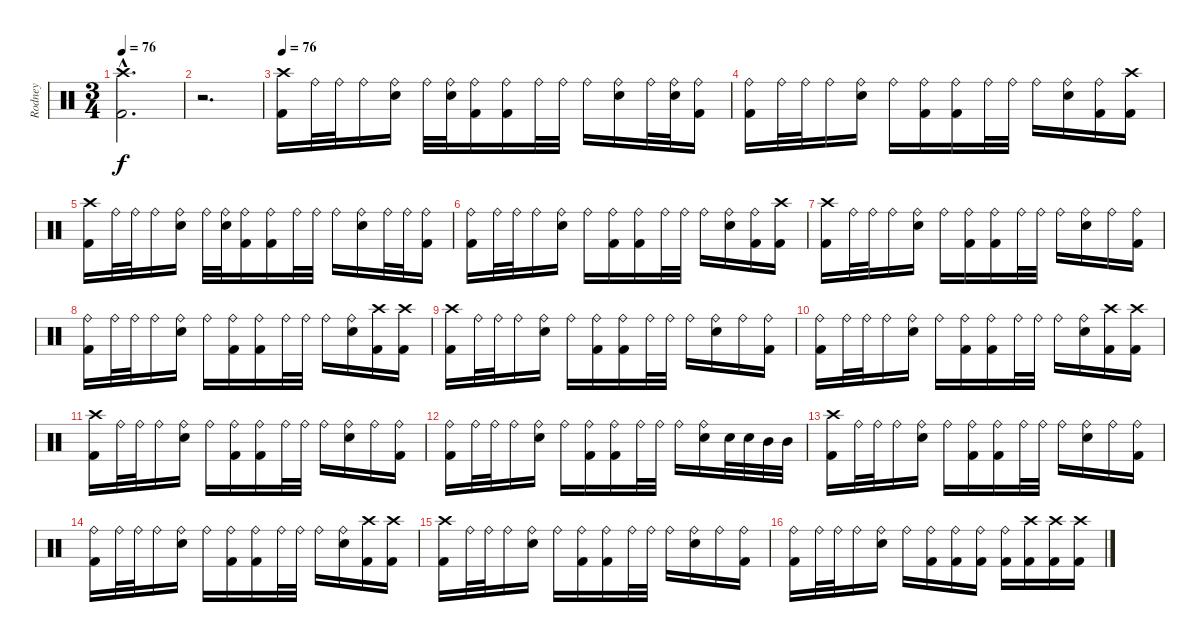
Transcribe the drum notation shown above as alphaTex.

\track ("Rodney" "Rodney") {instrument percussion}
\staff {score}
\articulation defaults
\ts (3 4)
\tempo 76
\clef neutral
\ks c
("Crash high (hit)"{hac} "Kick (hit) 2"{hac}).2{d dy f} |
r.2{d} |
\tempo 76
("Crash high (hit)" "Kick (hit) 2").16 "Ride (bell)".32 "Ride (bell)".32 "Ride (bell)".16 ("Ride (bell)" "Snare (hit) 2").16 "Ride (bell)".32 ("Ride (bell)" "Snare (hit) 2").32 ("Ride (bell)" "Kick (hit) 2").16 ("Ride (bell)" "Kick (hit) 2").16 "Ride (bell)".32 "Ride (bell)".32 "Ride (bell)".16 ("Ride (bell)" "Snare (hit) 2").16 "Ride (bell)".32 ("Ride (bell)" "Snare (hit) 2").32 ("Ride (bell)" "Kick (hit) 2").16 |
("Ride (bell)" "Kick (hit) 2").16 "Ride (bell)".32 "Ride (bell)".32 "Ride (bell)".16 ("Ride (bell)" "Snare (hit) 2").16 "Ride (bell)".16 ("Ride (bell)" "Kick (hit) 2").16 ("Ride (bell)" "Kick (hit) 2").16 "Ride (bell)".32 "Ride (bell)".32 "Ride (bell)".16 ("Ride (bell)" "Snare (hit) 2").16 ("Ride (bell)" "Kick (hit) 2").16 ("Crash high (hit)" "Kick (hit) 2").16 |
("Crash high (hit)" "Kick (hit) 2").16 "Ride (bell)".32 "Ride (bell)".32 "Ride (bell)".16 ("Ride (bell)" "Snare (hit) 2").16 "Ride (bell)".32 ("Ride (bell)" "Snare (hit) 2").32 ("Ride (bell)" "Kick (hit) 2").16 ("Ride (bell)" "Kick (hit) 2").16 "Ride (bell)".32 "Ride (bell)".32 "Ride (bell)".16 ("Ride (bell)" "Snare (hit) 2").16 "Ride (bell)".32 "Ride (bell)".32 ("Ride (bell)" "Kick (hit) 2").16 |
("Ride (bell)" "Kick (hit) 2").16 "Ride (bell)".32 "Ride (bell)".32 "Ride (bell)".16 ("Ride (bell)" "Snare (hit) 2").16 "Ride (bell)".16 ("Ride (bell)" "Kick (hit) 2").16 ("Ride (bell)" "Kick (hit) 2").16 "Ride (bell)".32 "Ride (bell)".32 "Ride (bell)".16 ("Ride (bell)" "Snare (hit) 2").16 ("Ride (bell)" "Kick (hit) 2").16 ("Crash high (hit)" "Kick (hit) 2").16 |
("Crash high (hit)" "Kick (hit) 2").16 "Ride (bell)".32 "Ride (bell)".32 "Ride (bell)".16 ("Ride (bell)" "Snare (hit) 2").16 "Ride (bell)".16 ("Ride (bell)" "Kick (hit) 2").16 ("Ride (bell)" "Kick (hit) 2").16 "Ride (bell)".32 "Ride (bell)".32 "Ride (bell)".16 ("Ride (bell)" "Snare (hit) 2").16 "Ride (bell)".16 ("Ride (bell)" "Kick (hit) 2").16 |
("Ride (bell)" "Kick (hit) 2").16 "Ride (bell)".32 "Ride (bell)".32 "Ride (bell)".16 ("Ride (bell)" "Snare (hit) 2").16 "Ride (bell)".16 ("Ride (bell)" "Kick (hit) 2").16 ("Ride (bell)" "Kick (hit) 2").16 "Ride (bell)".32 "Ride (bell)".32 "Ride (bell)".16 ("Ride (bell)" "Snare (hit) 2").16 ("Crash high (hit)" "Kick (hit) 2").16 ("Crash high (hit)" "Kick (hit) 2").16 |
("Crash high (hit)" "Kick (hit) 2").16 "Ride (bell)".32 "Ride (bell)".32 "Ride (bell)".16 ("Ride (bell)" "Snare (hit) 2").16 "Ride (bell)".16 ("Ride (bell)" "Kick (hit) 2").16 ("Ride (bell)" "Kick (hit) 2").16 "Ride (bell)".32 "Ride (bell)".32 "Ride (bell)".16 ("Ride (bell)" "Snare (hit) 2").16 "Ride (bell)".16 ("Ride (bell)" "Kick (hit) 2").16 |
("Ride (bell)" "Kick (hit) 2").16 "Ride (bell)".32 "Ride (bell)".32 "Ride (bell)".16 ("Ride (bell)" "Snare (hit) 2").16 "Ride (bell)".16 ("Ride (bell)" "Kick (hit) 2").16 ("Ride (bell)" "Kick (hit) 2").16 "Ride (bell)".32 "Ride (bell)".32 "Ride (bell)".16 ("Ride (bell)" "Snare (hit) 2").16 ("Crash high (hit)" "Kick (hit) 2").16 ("Crash high (hit)" "Kick (hit) 2").16 |
("Crash high (hit)" "Kick (hit) 2").16 "Ride (bell)".32 "Ride (bell)".32 "Ride (bell)".16 ("Ride (bell)" "Snare (hit) 2").16 "Ride (bell)".16 ("Ride (bell)" "Kick (hit) 2").16 ("Ride (bell)" "Kick (hit) 2").16 "Ride (bell)".32 "Ride (bell)".32 "Ride (bell)".16 ("Ride (bell)" "Snare (hit) 2").16 "Ride (bell)".16 ("Ride (bell)" "Kick (hit) 2").16 |
("Ride (bell)" "Kick (hit) 2").16 "Ride (bell)".32 "Ride (bell)".32 "Ride (bell)".16 ("Ride (bell)" "Snare (hit) 2").16 "Ride (bell)".16 ("Ride (bell)" "Kick (hit) 2").16 ("Ride (bell)" "Kick (hit) 2").16 "Ride (bell)".32 "Ride (bell)".32 "Ride (bell)".16 ("Ride (bell)" "Snare (hit) 2").16 "Snare (hit) 2".32 "Snare (hit) 2".32 "Mid Tom (hit)".32 "Mid Tom (hit)".32 |
("Crash high (hit)" "Kick (hit) 2").16 "Ride (bell)".32 "Ride (bell)".32 "Ride (bell)".16 ("Ride (bell)" "Snare (hit) 2").16 "Ride (bell)".16 ("Ride (bell)" "Kick (hit) 2").16 ("Ride (bell)" "Kick (hit) 2").16 "Ride (bell)".32 "Ride (bell)".32 "Ride (bell)".16 ("Ride (bell)" "Snare (hit) 2").16 "Ride (bell)".16 ("Ride (bell)" "Kick (hit) 2").16 |
("Ride (bell)" "Kick (hit) 2").16 "Ride (bell)".32 "Ride (bell)".32 "Ride (bell)".16 ("Ride (bell)" "Snare (hit) 2").16 "Ride (bell)".16 ("Ride (bell)" "Kick (hit) 2").16 ("Ride (bell)" "Kick (hit) 2").16 "Ride (bell)".32 "Ride (bell)".32 "Ride (bell)".16 ("Ride (bell)" "Snare (hit) 2").16 ("Crash high (hit)" "Kick (hit) 2").16 ("Crash high (hit)" "Kick (hit) 2").16 |
("Crash high (hit)" "Kick (hit) 2").16 "Ride (bell)".32 "Ride (bell)".32 "Ride (bell)".16 ("Ride (bell)" "Snare (hit) 2").16 "Ride (bell)".16 ("Ride (bell)" "Kick (hit) 2").16 ("Ride (bell)" "Kick (hit) 2").16 "Ride (bell)".32 "Ride (bell)".32 "Ride (bell)".16 ("Ride (bell)" "Snare (hit) 2").16 "Ride (bell)".16 ("Ride (bell)" "Kick (hit) 2").16 |
("Ride (bell)" "Kick (hit) 2").16 "Ride (bell)".32 "Ride (bell)".32 "Ride (bell)".16 ("Ride (bell)" "Snare (hit) 2").16 "Ride (bell)".16 ("Ride (bell)" "Kick (hit) 2").16 ("Ride (bell)" "Kick (hit) 2").16 ("Ride (bell)" "Kick (hit) 2").16 ("Ride (bell)" "Kick (hit) 2").16 ("Crash high (hit)" "Kick (hit) 2").16 ("Crash high (hit)" "Kick (hit) 2").16 ("Crash high (hit)" "Kick (hit) 2").16
